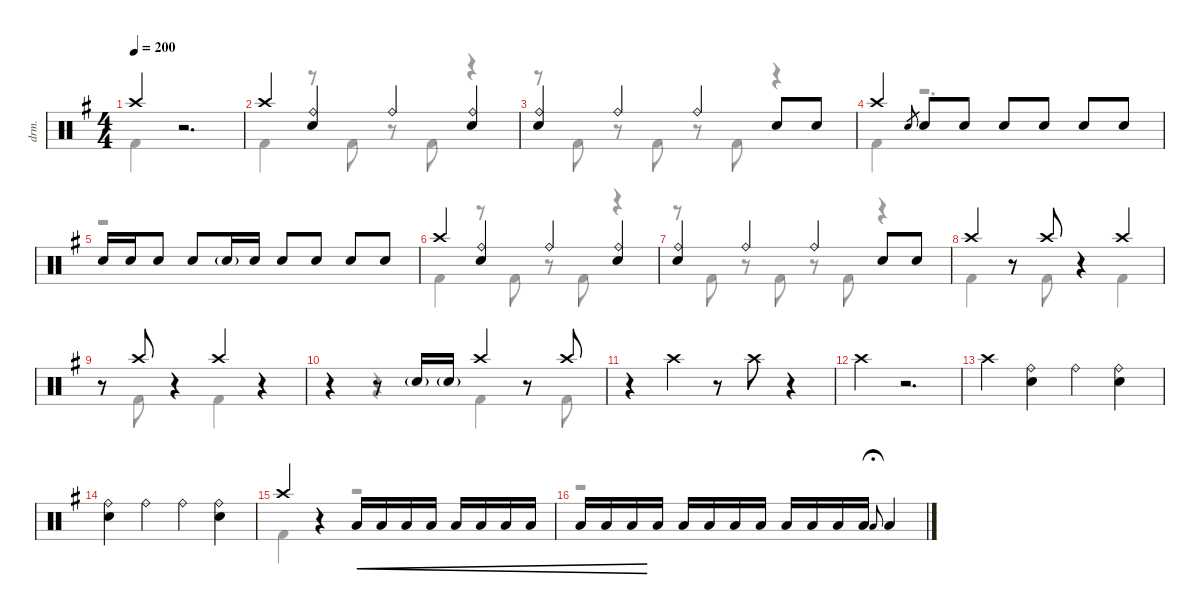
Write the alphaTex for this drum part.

\defaultSystemsLayout 4
\hideDynamics
\bracketExtendMode nobrackets
\track ("Drums" "drm.") {instrument percussion}
\staff {score}
\articulation defaults
\voice
\ts (4 4)
\tempo 200
\clef neutral
\ks g "Crash high (hit)"{acc forcenatural}.4{dy mf}
r.2{d} |
"Crash high (hit)"{acc forcenatural}.4 ("Ride (bell)"{acc forcenatural} "Snare (hit) 2"{acc forcenatural}).4 "Ride (bell)"{acc forcenatural}.4 ("Ride (bell)"{acc forcenatural} "Snare (hit) 2"{acc forcenatural}).4 |
("Ride (bell)"{acc forcenatural} "Snare (hit) 2"{acc forcenatural}).4 "Ride (bell)"{acc forcenatural}.4 "Ride (bell)"{acc forcenatural}.4 "Snare (hit) 2"{acc forcenatural}.8 "Snare (hit) 2"{acc forcenatural}.8 |
"Crash high (hit)"{acc forcenatural}.4 "Snare (hit) 2"{acc forcenatural}.8{gr} "Snare (hit) 2"{acc forcenatural}.8 "Snare (hit) 2"{acc forcenatural}.8 "Snare (hit) 2"{acc forcenatural}.8 "Snare (hit) 2"{acc forcenatural}.8 "Snare (hit) 2"{acc forcenatural}.8 "Snare (hit) 2"{acc forcenatural}.8 |
"Snare (hit) 2"{acc forcenatural}.16 "Snare (hit) 2"{acc forcenatural}.16 "Snare (hit) 2"{acc forcenatural}.8 "Snare (hit) 2"{acc forcenatural}.8 "Snare (hit) 2"{g acc forcenatural}.16 "Snare (hit) 2"{acc forcenatural}.16 "Snare (hit) 2"{acc forcenatural}.8 "Snare (hit) 2"{acc forcenatural}.8 "Snare (hit) 2"{acc forcenatural}.8 "Snare (hit) 2"{acc forcenatural}.8 |
"Crash high (hit)"{acc forcenatural}.4 ("Ride (bell)"{acc forcenatural} "Snare (hit) 2"{acc forcenatural}).4 "Ride (bell)"{acc forcenatural}.4 ("Ride (bell)"{acc forcenatural} "Snare (hit) 2"{acc forcenatural}).4 |
("Ride (bell)"{acc forcenatural} "Snare (hit) 2"{acc forcenatural}).4 "Ride (bell)"{acc forcenatural}.4 "Ride (bell)"{acc forcenatural}.4 "Snare (hit) 2"{acc forcenatural}.8 "Snare (hit) 2"{acc forcenatural}.8 |
"Crash high (hit)"{acc forcenatural}.4 r.8 "Crash high (hit)"{acc forcenatural}.8 r.4 "Crash high (hit)"{acc forcenatural}.4 |
r.8 "Crash high (hit)"{acc forcenatural}.8 r.4 "Crash high (hit)"{acc forcenatural}.4 r.4 |
r.4 r.8 "Snare (hit) 2"{g acc forcenatural}.16 "Snare (hit) 2"{g acc forcenatural}.16 "Crash high (hit)"{acc forcenatural}.4 r.8 "Crash high (hit)"{acc forcenatural}.8 |
r.4 "Crash high (hit)"{acc forcenatural}.4 r.8 "Crash high (hit)"{acc forcenatural}.8 r.4 |
"Crash high (hit)"{acc forcenatural}.4 r.2{d} |
"Crash high (hit)"{acc forcenatural}.4 ("Ride (bell)"{acc forcenatural} "Snare (hit) 2"{acc forcenatural}).4 "Ride (bell)"{acc forcenatural}.4 ("Ride (bell)"{acc forcenatural} "Snare (hit) 2"{acc forcenatural}).4 |
("Snare (hit) 2"{acc forcenatural} "Ride (bell)"{acc forcenatural}).4 "Ride (bell)"{acc forcenatural}.4 "Ride (bell)"{acc forcenatural}.4 ("Ride (bell)"{acc forcenatural} "Snare (hit) 2"{acc forcenatural}).4 |
"Crash high (hit)"{acc forcenatural}.4 r.4 "Low Tom (hit)"{acc forcenatural}.16{cre} "Low Tom (hit)"{acc forcenatural}.16{cre} "Low Tom (hit)"{acc forcenatural}.16{cre} "Low Tom (hit)"{acc forcenatural}.16{cre} "Low Tom (hit)"{acc forcenatural}.16{cre} "Low Tom (hit)"{acc forcenatural}.16{cre} "Low Tom (hit)"{acc forcenatural}.16{cre} "Low Tom (hit)"{acc forcenatural}.16{cre} |
"Low Tom (hit)"{acc forcenatural}.16{cre} "Low Tom (hit)"{acc forcenatural}.16{cre} "Low Tom (hit)"{acc forcenatural}.16{cre} "Low Tom (hit)"{acc forcenatural}.16 "Low Tom (hit)"{acc forcenatural}.16 "Low Tom (hit)"{acc forcenatural}.16 "Low Tom (hit)"{acc forcenatural}.16 "Low Tom (hit)"{acc forcenatural}.16 "Low Tom (hit)"{acc forcenatural}.16 "Low Tom (hit)"{acc forcenatural}.16 "Low Tom (hit)"{acc forcenatural}.16 "Low Tom (hit)"{acc forcenatural}.16 "Low Tom (hit)"{acc forcenatural}.8{gr onbeat fermata (medium 0.12)} "Low Tom (hit)"{acc forcenatural}.4
\voice
\clef neutral
\ottava regular
\simile none
\ks g "Kick (hit) 2"{acc forcenatural}.4{dy mf}
r.2{d} |
"Kick (hit) 2"{acc forcenatural}.4 r.8 "Kick (hit) 2"{acc forcenatural}.8 r.8 "Kick (hit) 2"{acc forcenatural}.8 r.4 |
r.8 "Kick (hit) 2"{acc forcenatural}.8 r.8 "Kick (hit) 2"{acc forcenatural}.8 r.8 "Kick (hit) 2"{acc forcenatural}.8 r.4 |
"Kick (hit) 2"{acc forcenatural}.4 r.2{d} |
r.1 |
"Kick (hit) 2"{acc forcenatural}.4 r.8 "Kick (hit) 2"{acc forcenatural}.8 r.8 "Kick (hit) 2"{acc forcenatural}.8 r.4 |
r.8 "Kick (hit) 2"{acc forcenatural}.8 r.8 "Kick (hit) 2"{acc forcenatural}.8 r.8 "Kick (hit) 2"{acc forcenatural}.8 r.4 |
"Kick (hit) 2"{acc forcenatural}.4 r.8 "Kick (hit) 2"{acc forcenatural}.8 r.4 "Kick (hit) 2"{acc forcenatural}.4 |
r.8 "Kick (hit) 2"{acc forcenatural}.8 r.4 "Kick (hit) 2"{acc forcenatural}.4 r.4 |
r.4 r.4 "Kick (hit) 2"{acc forcenatural}.4 r.8 "Kick (hit) 2"{acc forcenatural}.8 |
|
|
|
|
"Kick (hit) 2"{acc forcenatural}.4 r.4 r.2 |
r.1
